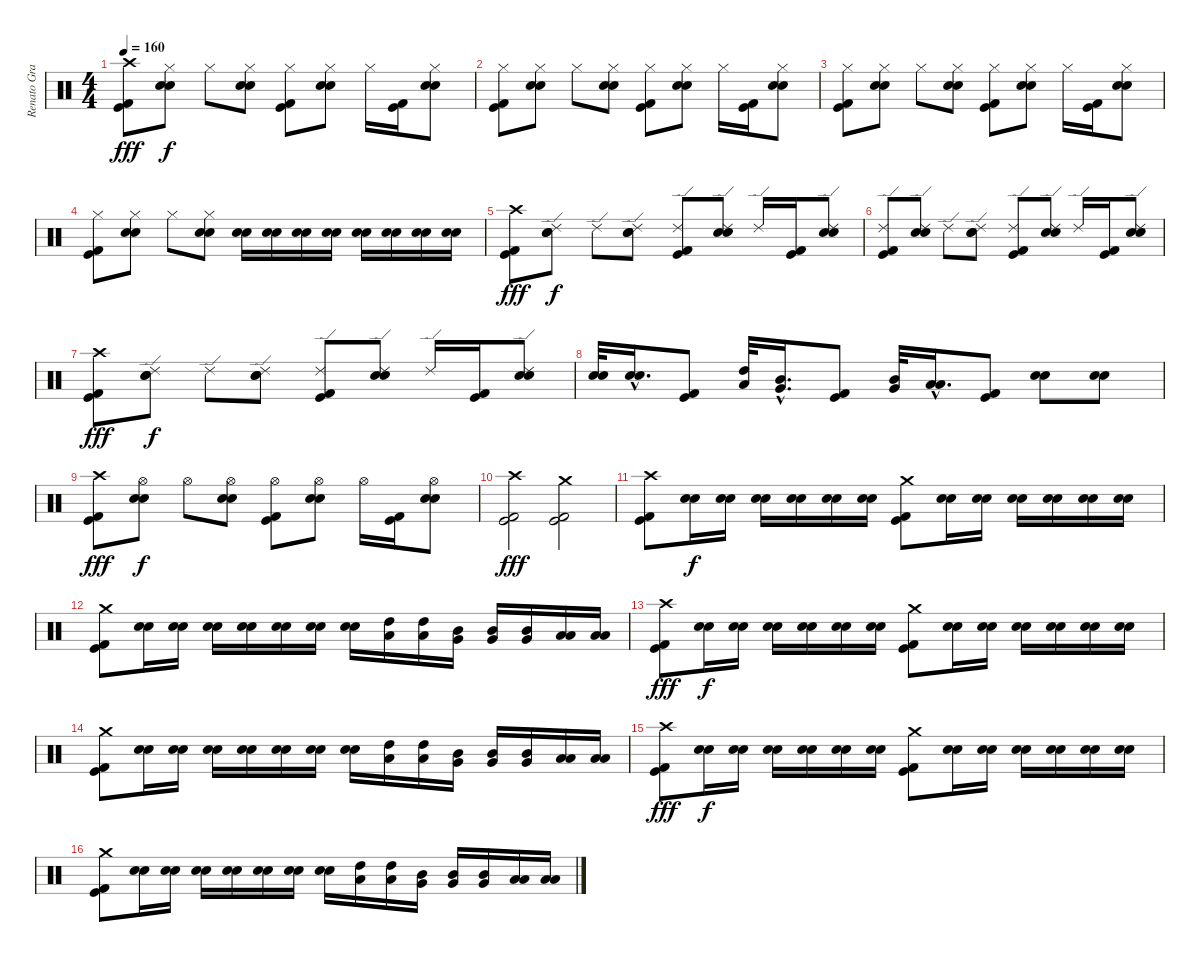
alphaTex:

\track ("Renato Graccia" "Renato Gra") {instrument percussion}
\staff {score}
\articulation defaults
\ts (4 4)
\tempo 160
\clef neutral
\ks c
("Crash high (hit)" "Kick (hit) 2" "Kick (hit)").8{dy fff} ("Hi-Hat (closed)" "Electric Snare (hit)" "Snare (hit) 2").8{dy f} "Hi-Hat (closed)".8 ("Hi-Hat (closed)" "Electric Snare (hit)" "Snare (hit) 2").8 ("Hi-Hat (closed)" "Kick (hit) 2" "Kick (hit)").8 ("Hi-Hat (closed)" "Electric Snare (hit)" "Snare (hit) 2").8 "Hi-Hat (closed)".16 ("Kick (hit) 2" "Kick (hit)").16 ("Hi-Hat (closed)" "Electric Snare (hit)" "Snare (hit) 2").8 |
("Hi-Hat (closed)" "Kick (hit) 2" "Kick (hit)").8 ("Hi-Hat (closed)" "Electric Snare (hit)" "Snare (hit) 2").8 "Hi-Hat (closed)".8 ("Hi-Hat (closed)" "Electric Snare (hit)" "Snare (hit) 2").8 ("Hi-Hat (closed)" "Kick (hit) 2" "Kick (hit)").8 ("Hi-Hat (closed)" "Electric Snare (hit)" "Snare (hit) 2").8 "Hi-Hat (closed)".16 ("Kick (hit) 2" "Kick (hit)").16 ("Hi-Hat (closed)" "Electric Snare (hit)" "Snare (hit) 2").8 |
("Hi-Hat (closed)" "Kick (hit) 2" "Kick (hit)").8 ("Hi-Hat (closed)" "Electric Snare (hit)" "Snare (hit) 2").8 "Hi-Hat (closed)".8 ("Hi-Hat (closed)" "Electric Snare (hit)" "Snare (hit) 2").8 ("Hi-Hat (closed)" "Kick (hit) 2" "Kick (hit)").8 ("Hi-Hat (closed)" "Electric Snare (hit)" "Snare (hit) 2").8 "Hi-Hat (closed)".16 ("Kick (hit) 2" "Kick (hit)").16 ("Hi-Hat (closed)" "Electric Snare (hit)" "Snare (hit) 2").8 |
("Hi-Hat (closed)" "Kick (hit) 2" "Kick (hit)").8 ("Hi-Hat (closed)" "Electric Snare (hit)" "Snare (hit) 2").8 "Hi-Hat (closed)".8 ("Hi-Hat (closed)" "Electric Snare (hit)" "Snare (hit) 2").8 ("Electric Snare (hit)" "Snare (hit) 2").16 ("Electric Snare (hit)" "Snare (hit) 2").16 ("Electric Snare (hit)" "Snare (hit) 2").16 ("Electric Snare (hit)" "Snare (hit) 2").16 ("Electric Snare (hit)" "Snare (hit) 2").16 ("Electric Snare (hit)" "Snare (hit) 2").16 ("Electric Snare (hit)" "Snare (hit) 2").16 ("Electric Snare (hit)" "Snare (hit) 2").16 |
("Crash high (hit)" "Kick (hit) 2" "Kick (hit)").8{dy fff} ("Ride (edge) 2" "Electric Snare (hit)" "Snare (hit) 2").8{dy f} "Ride (edge) 2".8 ("Ride (edge) 2" "Electric Snare (hit)" "Snare (hit) 2").8 ("Ride (edge) 2" "Kick (hit) 2" "Kick (hit)").8 ("Ride (edge) 2" "Electric Snare (hit)" "Snare (hit) 2").8 "Ride (edge) 2".16 ("Kick (hit) 2" "Kick (hit)").16 ("Ride (edge) 2" "Electric Snare (hit)" "Snare (hit) 2").8 |
("Ride (edge) 2" "Kick (hit) 2" "Kick (hit)").8 ("Ride (edge) 2" "Electric Snare (hit)" "Snare (hit) 2").8 "Ride (edge) 2".8 ("Ride (edge) 2" "Electric Snare (hit)" "Snare (hit) 2").8 ("Ride (edge) 2" "Kick (hit) 2" "Kick (hit)").8 ("Ride (edge) 2" "Electric Snare (hit)" "Snare (hit) 2").8 "Ride (edge) 2".16 ("Kick (hit) 2" "Kick (hit)").16 ("Ride (edge) 2" "Electric Snare (hit)" "Snare (hit) 2").8 |
("Crash high (hit)" "Kick (hit) 2" "Kick (hit)").8{dy fff} ("Ride (edge) 2" "Electric Snare (hit)" "Snare (hit) 2").8{dy f} "Ride (edge) 2".8 ("Ride (edge) 2" "Electric Snare (hit)" "Snare (hit) 2").8 ("Ride (edge) 2" "Kick (hit) 2" "Kick (hit)").8 ("Ride (edge) 2" "Electric Snare (hit)" "Snare (hit) 2").8 "Ride (edge) 2".16 ("Kick (hit) 2" "Kick (hit)").16 ("Ride (edge) 2" "Electric Snare (hit)" "Snare (hit) 2").8 |
("Electric Snare (hit)" "Snare (hit) 2").32 ("Electric Snare (hit)"{hac} "Snare (hit) 2"{hac}).16{d} ("Kick (hit) 2" "Kick (hit)").8 ("High Tom (hit)" "Low Tom (hit)").32 ("Mid Tom (hit)"{hac} "Very Low Tom (hit)"{hac}).16{d} ("Kick (hit) 2" "Kick (hit)").8 ("Mid Tom (hit)" "Very Low Tom (hit)").32 ("Low Tom (hit)"{hac} "Low Floor Tom (hit)"{hac}).16{d} ("Kick (hit) 2" "Kick (hit)").8 ("Electric Snare (hit)" "Snare (hit) 2").8 ("Electric Snare (hit)" "Snare (hit) 2").8 |
("Crash high (hit)" "Kick (hit) 2" "Kick (hit)").8{dy fff} ("Hi-Hat (open)" "Electric Snare (hit)" "Snare (hit) 2").8{dy f} "Hi-Hat (open)".8 ("Hi-Hat (open)" "Electric Snare (hit)" "Snare (hit) 2").8 ("Hi-Hat (open)" "Kick (hit) 2" "Kick (hit)").8 ("Hi-Hat (open)" "Electric Snare (hit)" "Snare (hit) 2").8 "Hi-Hat (open)".16 ("Kick (hit) 2" "Kick (hit)").16 ("Hi-Hat (open)" "Electric Snare (hit)" "Snare (hit) 2").8 |
("Crash high (hit)" "Kick (hit) 2" "Kick (hit)").2{dy fff} ("Crash medium (hit)" "Kick (hit) 2" "Kick (hit)").2 |
("Crash high (hit)" "Kick (hit) 2" "Kick (hit)").8 ("Electric Snare (hit)" "Snare (hit) 2").16{dy f} ("Electric Snare (hit)" "Snare (hit) 2").16 ("Electric Snare (hit)" "Snare (hit) 2").16 ("Electric Snare (hit)" "Snare (hit) 2").16 ("Electric Snare (hit)" "Snare (hit) 2").16 ("Electric Snare (hit)" "Snare (hit) 2").16 ("Crash medium (hit)" "Kick (hit) 2" "Kick (hit)").8 ("Electric Snare (hit)" "Snare (hit) 2").16 ("Electric Snare (hit)" "Snare (hit) 2").16 ("Electric Snare (hit)" "Snare (hit) 2").16 ("Electric Snare (hit)" "Snare (hit) 2").16 ("Electric Snare (hit)" "Snare (hit) 2").16 ("Electric Snare (hit)" "Snare (hit) 2").16 |
("Crash medium (hit)" "Kick (hit) 2" "Kick (hit)").8 ("Electric Snare (hit)" "Snare (hit) 2").16 ("Electric Snare (hit)" "Snare (hit) 2").16 ("Electric Snare (hit)" "Snare (hit) 2").16 ("Electric Snare (hit)" "Snare (hit) 2").16 ("Electric Snare (hit)" "Snare (hit) 2").16 ("Electric Snare (hit)" "Snare (hit) 2").16 ("Electric Snare (hit)" "Snare (hit) 2").16 ("High Tom (hit)" "Low Tom (hit)").16 ("High Tom (hit)" "Low Tom (hit)").16 ("Mid Tom (hit)" "Very Low Tom (hit)").16 ("Mid Tom (hit)" "Very Low Tom (hit)").16 ("Mid Tom (hit)" "Very Low Tom (hit)").16 ("Low Tom (hit)" "Low Floor Tom (hit)").16 ("Low Tom (hit)" "Low Floor Tom (hit)").16 |
("Crash high (hit)" "Kick (hit) 2" "Kick (hit)").8{dy fff} ("Electric Snare (hit)" "Snare (hit) 2").16{dy f} ("Electric Snare (hit)" "Snare (hit) 2").16 ("Electric Snare (hit)" "Snare (hit) 2").16 ("Electric Snare (hit)" "Snare (hit) 2").16 ("Electric Snare (hit)" "Snare (hit) 2").16 ("Electric Snare (hit)" "Snare (hit) 2").16 ("Crash medium (hit)" "Kick (hit) 2" "Kick (hit)").8 ("Electric Snare (hit)" "Snare (hit) 2").16 ("Electric Snare (hit)" "Snare (hit) 2").16 ("Electric Snare (hit)" "Snare (hit) 2").16 ("Electric Snare (hit)" "Snare (hit) 2").16 ("Electric Snare (hit)" "Snare (hit) 2").16 ("Electric Snare (hit)" "Snare (hit) 2").16 |
("Crash medium (hit)" "Kick (hit) 2" "Kick (hit)").8 ("Electric Snare (hit)" "Snare (hit) 2").16 ("Electric Snare (hit)" "Snare (hit) 2").16 ("Electric Snare (hit)" "Snare (hit) 2").16 ("Electric Snare (hit)" "Snare (hit) 2").16 ("Electric Snare (hit)" "Snare (hit) 2").16 ("Electric Snare (hit)" "Snare (hit) 2").16 ("Electric Snare (hit)" "Snare (hit) 2").16 ("High Tom (hit)" "Low Tom (hit)").16 ("High Tom (hit)" "Low Tom (hit)").16 ("Mid Tom (hit)" "Very Low Tom (hit)").16 ("Mid Tom (hit)" "Very Low Tom (hit)").16 ("Mid Tom (hit)" "Very Low Tom (hit)").16 ("Low Tom (hit)" "Low Floor Tom (hit)").16 ("Low Tom (hit)" "Low Floor Tom (hit)").16 |
("Crash high (hit)" "Kick (hit) 2" "Kick (hit)").8{dy fff} ("Electric Snare (hit)" "Snare (hit) 2").16{dy f} ("Electric Snare (hit)" "Snare (hit) 2").16 ("Electric Snare (hit)" "Snare (hit) 2").16 ("Electric Snare (hit)" "Snare (hit) 2").16 ("Electric Snare (hit)" "Snare (hit) 2").16 ("Electric Snare (hit)" "Snare (hit) 2").16 ("Crash medium (hit)" "Kick (hit) 2" "Kick (hit)").8 ("Electric Snare (hit)" "Snare (hit) 2").16 ("Electric Snare (hit)" "Snare (hit) 2").16 ("Electric Snare (hit)" "Snare (hit) 2").16 ("Electric Snare (hit)" "Snare (hit) 2").16 ("Electric Snare (hit)" "Snare (hit) 2").16 ("Electric Snare (hit)" "Snare (hit) 2").16 |
("Crash medium (hit)" "Kick (hit) 2" "Kick (hit)").8 ("Electric Snare (hit)" "Snare (hit) 2").16 ("Electric Snare (hit)" "Snare (hit) 2").16 ("Electric Snare (hit)" "Snare (hit) 2").16 ("Electric Snare (hit)" "Snare (hit) 2").16 ("Electric Snare (hit)" "Snare (hit) 2").16 ("Electric Snare (hit)" "Snare (hit) 2").16 ("Electric Snare (hit)" "Snare (hit) 2").16 ("High Tom (hit)" "Low Tom (hit)").16 ("High Tom (hit)" "Low Tom (hit)").16 ("Mid Tom (hit)" "Very Low Tom (hit)").16 ("Mid Tom (hit)" "Very Low Tom (hit)").16 ("Mid Tom (hit)" "Very Low Tom (hit)").16 ("Low Tom (hit)" "Low Floor Tom (hit)").16 ("Low Tom (hit)" "Low Floor Tom (hit)").16
